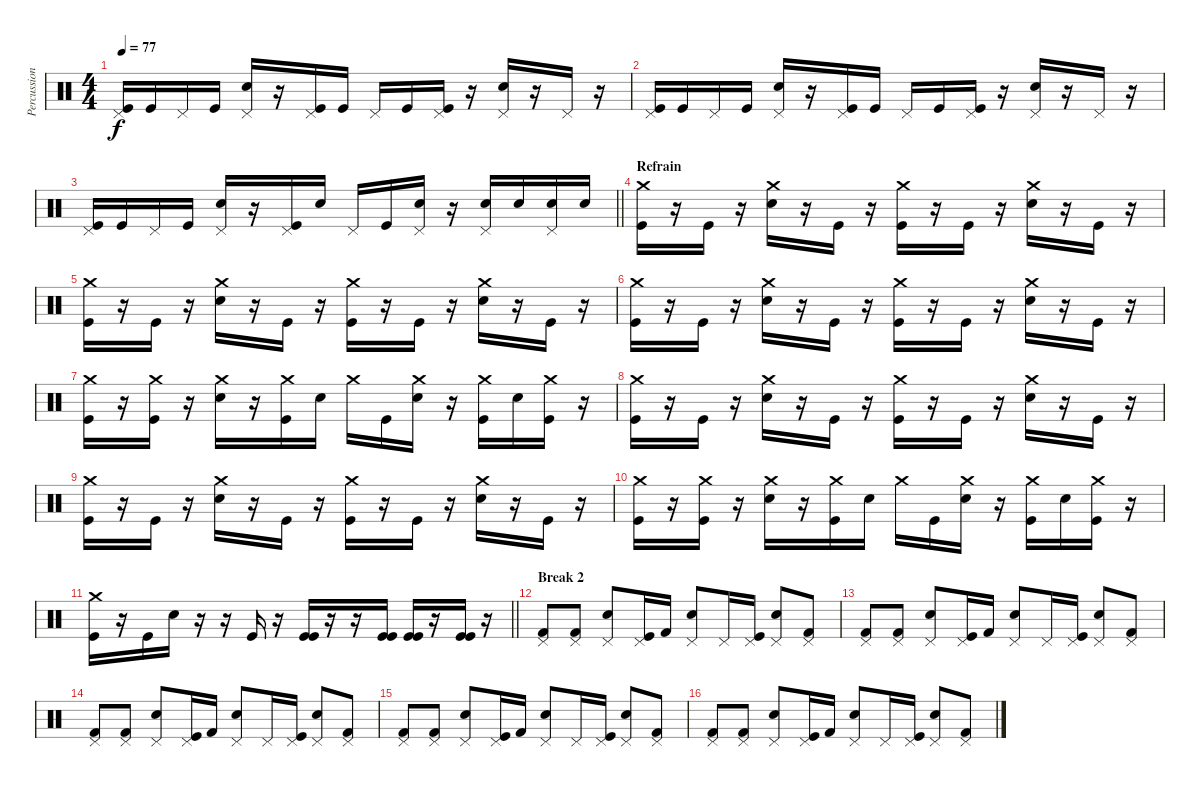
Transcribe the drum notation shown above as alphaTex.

\track ("Percussions" "Percussion") {instrument percussion}
\staff {score}
\articulation defaults
\ts (4 4)
\tempo 77
\clef neutral
\ks c
("Kick (hit)" "Pedal Hi-Hat (hit)").16{dy f} "Kick (hit)".16 "Pedal Hi-Hat (hit)".16 "Kick (hit)".16 ("Electric Snare (hit)" "Pedal Hi-Hat (hit)").16 r.16 ("Kick (hit)" "Pedal Hi-Hat (hit)").16 "Kick (hit)".16 "Pedal Hi-Hat (hit)".16 "Kick (hit)".16 ("Kick (hit)" "Pedal Hi-Hat (hit)").16 r.16 ("Electric Snare (hit)" "Pedal Hi-Hat (hit)").16 r.16 "Pedal Hi-Hat (hit)".16 r.16 |
("Kick (hit)" "Pedal Hi-Hat (hit)").16 "Kick (hit)".16 "Pedal Hi-Hat (hit)".16 "Kick (hit)".16 ("Electric Snare (hit)" "Pedal Hi-Hat (hit)").16 r.16 ("Kick (hit)" "Pedal Hi-Hat (hit)").16 "Kick (hit)".16 "Pedal Hi-Hat (hit)".16 "Kick (hit)".16 ("Kick (hit)" "Pedal Hi-Hat (hit)").16 r.16 ("Electric Snare (hit)" "Pedal Hi-Hat (hit)").16 r.16 "Pedal Hi-Hat (hit)".16 r.16 |
\barLineRight lightlight
("Kick (hit)" "Pedal Hi-Hat (hit)").16 "Kick (hit)".16 "Pedal Hi-Hat (hit)".16 "Kick (hit)".16 ("Electric Snare (hit)" "Pedal Hi-Hat (hit)").16 r.16 ("Kick (hit)" "Pedal Hi-Hat (hit)").16 "Electric Snare (hit)".16 "Pedal Hi-Hat (hit)".16 "Kick (hit)".16 ("Electric Snare (hit)" "Pedal Hi-Hat (hit)").16 r.16 ("Electric Snare (hit)" "Pedal Hi-Hat (hit)").16 "Electric Snare (hit)".16 ("Electric Snare (hit)" "Pedal Hi-Hat (hit)").16 "Electric Snare (hit)".16 |
\section ("" "Refrain")
("Kick (hit)" "Crash medium (hit)").16 r.16 "Kick (hit)".16 r.16 ("Electric Snare (hit)" "Crash medium (hit)").16 r.16 "Kick (hit)".16 r.16 ("Kick (hit)" "Crash medium (hit)").16 r.16 "Kick (hit)".16 r.16 ("Electric Snare (hit)" "Crash medium (hit)").16 r.16 "Kick (hit)".16 r.16 |
("Kick (hit)" "Crash medium (hit)").16 r.16 "Kick (hit)".16 r.16 ("Electric Snare (hit)" "Crash medium (hit)").16 r.16 "Kick (hit)".16 r.16 ("Kick (hit)" "Crash medium (hit)").16 r.16 "Kick (hit)".16 r.16 ("Electric Snare (hit)" "Crash medium (hit)").16 r.16 "Kick (hit)".16 r.16 |
("Kick (hit)" "Crash medium (hit)").16 r.16 "Kick (hit)".16 r.16 ("Electric Snare (hit)" "Crash medium (hit)").16 r.16 "Kick (hit)".16 r.16 ("Kick (hit)" "Crash medium (hit)").16 r.16 "Kick (hit)".16 r.16 ("Electric Snare (hit)" "Crash medium (hit)").16 r.16 "Kick (hit)".16 r.16 |
("Kick (hit)" "Crash medium (hit)").16 r.16 ("Kick (hit)" "Crash medium (hit)").16 r.16 ("Electric Snare (hit)" "Crash medium (hit)").16 r.16 ("Kick (hit)" "Crash medium (hit)").16 "Electric Snare (hit)".16 "Crash medium (hit)".16 "Kick (hit)".16 ("Electric Snare (hit)" "Crash medium (hit)").16 r.16 ("Kick (hit)" "Crash medium (hit)").16 "Electric Snare (hit)".16 ("Kick (hit)" "Crash medium (hit)").16 r.16 |
("Kick (hit)" "Crash medium (hit)").16 r.16 "Kick (hit)".16 r.16 ("Electric Snare (hit)" "Crash medium (hit)").16 r.16 "Kick (hit)".16 r.16 ("Kick (hit)" "Crash medium (hit)").16 r.16 "Kick (hit)".16 r.16 ("Electric Snare (hit)" "Crash medium (hit)").16 r.16 "Kick (hit)".16 r.16 |
("Kick (hit)" "Crash medium (hit)").16 r.16 "Kick (hit)".16 r.16 ("Electric Snare (hit)" "Crash medium (hit)").16 r.16 "Kick (hit)".16 r.16 ("Kick (hit)" "Crash medium (hit)").16 r.16 "Kick (hit)".16 r.16 ("Electric Snare (hit)" "Crash medium (hit)").16 r.16 "Kick (hit)".16 r.16 |
("Kick (hit)" "Crash medium (hit)").16 r.16 ("Kick (hit)" "Crash medium (hit)").16 r.16 ("Electric Snare (hit)" "Crash medium (hit)").16 r.16 ("Kick (hit)" "Crash medium (hit)").16 "Electric Snare (hit)".16 "Crash medium (hit)".16 "Kick (hit)".16 ("Electric Snare (hit)" "Crash medium (hit)").16 r.16 ("Kick (hit)" "Crash medium (hit)").16 "Electric Snare (hit)".16 ("Kick (hit)" "Crash medium (hit)").16 r.16 |
\barLineRight lightlight
("Kick (hit)" "Crash medium (hit)").16 r.16 "Kick (hit)".16 "Electric Snare (hit)".16 r.16 r.16 "Kick (hit)".16 r.16 ("Kick (hit)" "Kick (hit)").16 r.16 r.16 ("Kick (hit)" "Kick (hit)").16 ("Kick (hit)" "Kick (hit)").16 r.16 ("Kick (hit)" "Kick (hit)").16 r.16 |
\section ("" "Break 2")
("Kick (hit) 2" "Pedal Hi-Hat (hit)").8 ("Kick (hit) 2" "Pedal Hi-Hat (hit)").8 ("Electric Snare (hit)" "Pedal Hi-Hat (hit)").8 ("Kick (hit)" "Pedal Hi-Hat (hit)").16 "Kick (hit) 2".16 ("Electric Snare (hit)" "Pedal Hi-Hat (hit)").8 "Pedal Hi-Hat (hit)".16 ("Kick (hit)" "Pedal Hi-Hat (hit)").16 ("Electric Snare (hit)" "Pedal Hi-Hat (hit)").8 ("Kick (hit) 2" "Pedal Hi-Hat (hit)").8 |
("Kick (hit) 2" "Pedal Hi-Hat (hit)").8 ("Kick (hit) 2" "Pedal Hi-Hat (hit)").8 ("Electric Snare (hit)" "Pedal Hi-Hat (hit)").8 ("Kick (hit)" "Pedal Hi-Hat (hit)").16 "Kick (hit) 2".16 ("Electric Snare (hit)" "Pedal Hi-Hat (hit)").8 "Pedal Hi-Hat (hit)".16 ("Kick (hit)" "Pedal Hi-Hat (hit)").16 ("Electric Snare (hit)" "Pedal Hi-Hat (hit)").8 ("Kick (hit) 2" "Pedal Hi-Hat (hit)").8 |
("Kick (hit) 2" "Pedal Hi-Hat (hit)").8 ("Kick (hit) 2" "Pedal Hi-Hat (hit)").8 ("Electric Snare (hit)" "Pedal Hi-Hat (hit)").8 ("Kick (hit)" "Pedal Hi-Hat (hit)").16 "Kick (hit) 2".16 ("Electric Snare (hit)" "Pedal Hi-Hat (hit)").8 "Pedal Hi-Hat (hit)".16 ("Kick (hit)" "Pedal Hi-Hat (hit)").16 ("Electric Snare (hit)" "Pedal Hi-Hat (hit)").8 ("Kick (hit) 2" "Pedal Hi-Hat (hit)").8 |
("Kick (hit) 2" "Pedal Hi-Hat (hit)").8 ("Kick (hit) 2" "Pedal Hi-Hat (hit)").8 ("Electric Snare (hit)" "Pedal Hi-Hat (hit)").8 ("Kick (hit)" "Pedal Hi-Hat (hit)").16 "Kick (hit) 2".16 ("Electric Snare (hit)" "Pedal Hi-Hat (hit)").8 "Pedal Hi-Hat (hit)".16 ("Kick (hit)" "Pedal Hi-Hat (hit)").16 ("Electric Snare (hit)" "Pedal Hi-Hat (hit)").8 ("Kick (hit) 2" "Pedal Hi-Hat (hit)").8 |
("Kick (hit) 2" "Pedal Hi-Hat (hit)").8 ("Kick (hit) 2" "Pedal Hi-Hat (hit)").8 ("Electric Snare (hit)" "Pedal Hi-Hat (hit)").8 ("Kick (hit)" "Pedal Hi-Hat (hit)").16 "Kick (hit) 2".16 ("Electric Snare (hit)" "Pedal Hi-Hat (hit)").8 "Pedal Hi-Hat (hit)".16 ("Kick (hit)" "Pedal Hi-Hat (hit)").16 ("Electric Snare (hit)" "Pedal Hi-Hat (hit)").8 ("Kick (hit) 2" "Pedal Hi-Hat (hit)").8
